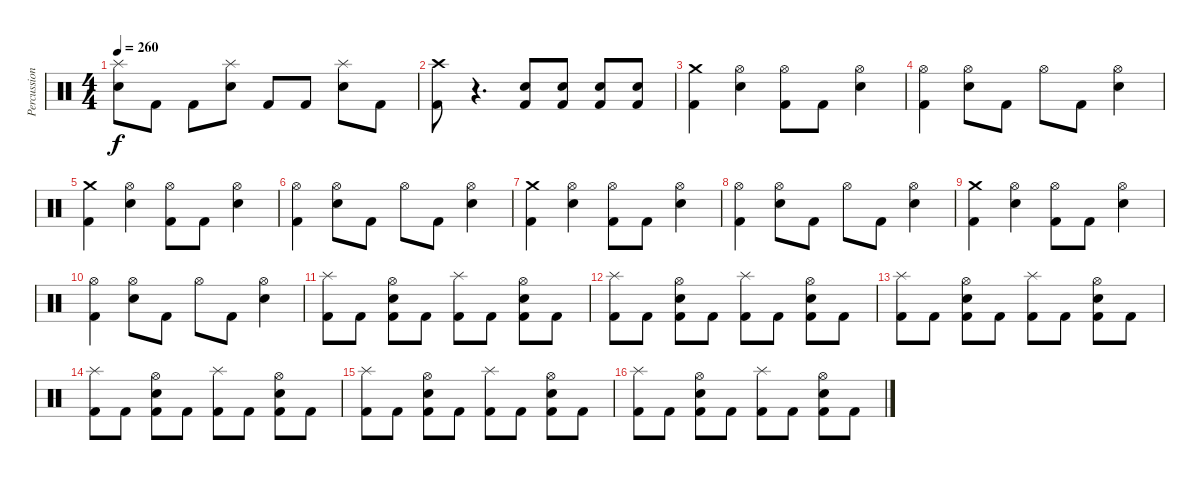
\track ("Percussion" "Percussion") {instrument percussion}
\staff {score}
\articulation defaults
\ts (4 4)
\tempo 260
\clef neutral
\ks c
("Electric Snare (hit)" "Splash (hit)").8{dy f} "Kick (hit) 2".8 "Kick (hit) 2".8 ("Electric Snare (hit)" "Splash (hit)").8 "Kick (hit) 2".8 "Kick (hit) 2".8 ("Electric Snare (hit)" "Splash (hit)").8 "Kick (hit) 2".8 |
("Kick (hit) 2" "Crash high (hit)").8 r.4{d} ("Electric Snare (hit)" "Kick (hit) 2").8 ("Electric Snare (hit)" "Kick (hit) 2").8 ("Electric Snare (hit)" "Kick (hit) 2").8 ("Electric Snare (hit)" "Kick (hit) 2").8 |
("Kick (hit) 2" "Crash medium (hit)").4 ("Electric Snare (hit)" "Hi-Hat (open)").4 ("Kick (hit) 2" "Hi-Hat (open)").8 "Kick (hit) 2".8 ("Electric Snare (hit)" "Hi-Hat (open)").4 |
("Kick (hit) 2" "Hi-Hat (open)").4 ("Electric Snare (hit)" "Hi-Hat (open)").8 "Kick (hit) 2".8 "Hi-Hat (open)".8 "Kick (hit) 2".8 ("Electric Snare (hit)" "Hi-Hat (open)").4 |
("Kick (hit) 2" "Crash medium (hit)").4 ("Electric Snare (hit)" "Hi-Hat (open)").4 ("Kick (hit) 2" "Hi-Hat (open)").8 "Kick (hit) 2".8 ("Electric Snare (hit)" "Hi-Hat (open)").4 |
("Kick (hit) 2" "Hi-Hat (open)").4 ("Electric Snare (hit)" "Hi-Hat (open)").8 "Kick (hit) 2".8 "Hi-Hat (open)".8 "Kick (hit) 2".8 ("Electric Snare (hit)" "Hi-Hat (open)").4 |
("Kick (hit) 2" "Crash medium (hit)").4 ("Electric Snare (hit)" "Hi-Hat (open)").4 ("Kick (hit) 2" "Hi-Hat (open)").8 "Kick (hit) 2".8 ("Electric Snare (hit)" "Hi-Hat (open)").4 |
("Kick (hit) 2" "Hi-Hat (open)").4 ("Electric Snare (hit)" "Hi-Hat (open)").8 "Kick (hit) 2".8 "Hi-Hat (open)".8 "Kick (hit) 2".8 ("Electric Snare (hit)" "Hi-Hat (open)").4 |
("Kick (hit) 2" "Crash medium (hit)").4 ("Electric Snare (hit)" "Hi-Hat (open)").4 ("Kick (hit) 2" "Hi-Hat (open)").8 "Kick (hit) 2".8 ("Electric Snare (hit)" "Hi-Hat (open)").4 |
("Kick (hit) 2" "Hi-Hat (open)").4 ("Electric Snare (hit)" "Hi-Hat (open)").8 "Kick (hit) 2".8 "Hi-Hat (open)".8 "Kick (hit) 2".8 ("Electric Snare (hit)" "Hi-Hat (open)").4 |
("Kick (hit) 2" "Splash (hit)").8 "Kick (hit) 2".8 ("Kick (hit) 2" "Electric Snare (hit)" "Hi-Hat (open)").8 "Kick (hit) 2".8 ("Kick (hit) 2" "Splash (hit)").8 "Kick (hit) 2".8 ("Kick (hit) 2" "Electric Snare (hit)" "Hi-Hat (open)").8 "Kick (hit) 2".8 |
("Kick (hit) 2" "Splash (hit)").8 "Kick (hit) 2".8 ("Kick (hit) 2" "Electric Snare (hit)" "Hi-Hat (open)").8 "Kick (hit) 2".8 ("Kick (hit) 2" "Splash (hit)").8 "Kick (hit) 2".8 ("Kick (hit) 2" "Electric Snare (hit)" "Hi-Hat (open)").8 "Kick (hit) 2".8 |
("Kick (hit) 2" "Splash (hit)").8 "Kick (hit) 2".8 ("Kick (hit) 2" "Electric Snare (hit)" "Hi-Hat (open)").8 "Kick (hit) 2".8 ("Kick (hit) 2" "Splash (hit)").8 "Kick (hit) 2".8 ("Kick (hit) 2" "Electric Snare (hit)" "Hi-Hat (open)").8 "Kick (hit) 2".8 |
("Kick (hit) 2" "Splash (hit)").8 "Kick (hit) 2".8 ("Kick (hit) 2" "Electric Snare (hit)" "Hi-Hat (open)").8 "Kick (hit) 2".8 ("Kick (hit) 2" "Splash (hit)").8 "Kick (hit) 2".8 ("Kick (hit) 2" "Electric Snare (hit)" "Hi-Hat (open)").8 "Kick (hit) 2".8 |
("Kick (hit) 2" "Splash (hit)").8 "Kick (hit) 2".8 ("Kick (hit) 2" "Electric Snare (hit)" "Hi-Hat (open)").8 "Kick (hit) 2".8 ("Kick (hit) 2" "Splash (hit)").8 "Kick (hit) 2".8 ("Kick (hit) 2" "Electric Snare (hit)" "Hi-Hat (open)").8 "Kick (hit) 2".8 |
("Kick (hit) 2" "Splash (hit)").8 "Kick (hit) 2".8 ("Kick (hit) 2" "Electric Snare (hit)" "Hi-Hat (open)").8 "Kick (hit) 2".8 ("Kick (hit) 2" "Splash (hit)").8 "Kick (hit) 2".8 ("Kick (hit) 2" "Electric Snare (hit)" "Hi-Hat (open)").8 "Kick (hit) 2".8
